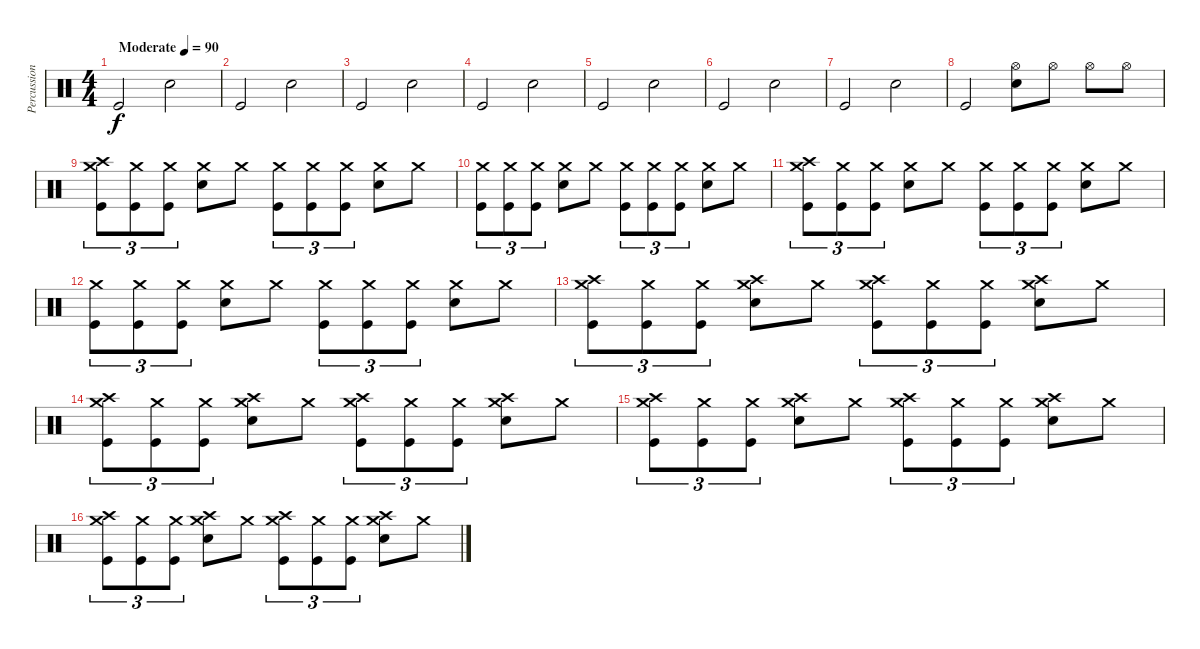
\track ("Percussion" "Percussion") {instrument percussion}
\staff
\articulation defaults
\ts (4 4)
\tempo (90 "Moderate")
\clef neutral
\ks c "Kick (hit)".2{dy f} "Snare (hit) 2".2
|
"Kick (hit)".2 "Snare (hit) 2".2 |
"Kick (hit)".2 "Snare (hit) 2".2 |
"Kick (hit)".2 "Snare (hit) 2".2 |
"Kick (hit)".2 "Snare (hit) 2".2 |
"Kick (hit)".2 "Snare (hit) 2".2 |
"Kick (hit)".2 "Snare (hit) 2".2 |
"Kick (hit)".2 ("Hi-Hat (open)" "Snare (hit) 2").8 "Hi-Hat (open)".8 "Hi-Hat (open)".8 "Hi-Hat (open)".8 |
("Crash high (hit)" "Crash medium (hit)" "Kick (hit)").8{tu (3 2)} ("Crash medium (hit)" "Kick (hit)").8{tu (3 2)} ("Crash medium (hit)" "Kick (hit)").8{tu (3 2)} ("Crash medium (hit)" "Snare (hit) 2").8 "Crash medium (hit)".8 ("Crash medium (hit)" "Kick (hit)").8{tu (3 2)} ("Crash medium (hit)" "Kick (hit)").8{tu (3 2)} ("Crash medium (hit)" "Kick (hit)").8{tu (3 2)} ("Crash medium (hit)" "Snare (hit) 2").8 "Crash medium (hit)".8 |
("Crash medium (hit)" "Kick (hit)").8{tu (3 2)} ("Crash medium (hit)" "Kick (hit)").8{tu (3 2)} ("Crash medium (hit)" "Kick (hit)").8{tu (3 2)} ("Crash medium (hit)" "Snare (hit) 2").8 "Crash medium (hit)".8 ("Crash medium (hit)" "Kick (hit)").8{tu (3 2)} ("Crash medium (hit)" "Kick (hit)").8{tu (3 2)} ("Crash medium (hit)" "Kick (hit)").8{tu (3 2)} ("Crash medium (hit)" "Snare (hit) 2").8 "Crash medium (hit)".8 |
("Crash high (hit)" "Crash medium (hit)" "Kick (hit)").8{tu (3 2)} ("Crash medium (hit)" "Kick (hit)").8{tu (3 2)} ("Crash medium (hit)" "Kick (hit)").8{tu (3 2)} ("Crash medium (hit)" "Snare (hit) 2").8 "Crash medium (hit)".8 ("Crash medium (hit)" "Kick (hit)").8{tu (3 2)} ("Crash medium (hit)" "Kick (hit)").8{tu (3 2)} ("Crash medium (hit)" "Kick (hit)").8{tu (3 2)} ("Crash medium (hit)" "Snare (hit) 2").8 "Crash medium (hit)".8 |
("Crash medium (hit)" "Kick (hit)").8{tu (3 2)} ("Crash medium (hit)" "Kick (hit)").8{tu (3 2)} ("Crash medium (hit)" "Kick (hit)").8{tu (3 2)} ("Crash medium (hit)" "Snare (hit) 2").8 "Crash medium (hit)".8 ("Crash medium (hit)" "Kick (hit)").8{tu (3 2)} ("Crash medium (hit)" "Kick (hit)").8{tu (3 2)} ("Crash medium (hit)" "Kick (hit)").8{tu (3 2)} ("Crash medium (hit)" "Snare (hit) 2").8 "Crash medium (hit)".8 |
("Crash high (hit)" "Crash medium (hit)" "Kick (hit)").8{tu (3 2)} ("Crash medium (hit)" "Kick (hit)").8{tu (3 2)} ("Crash medium (hit)" "Kick (hit)").8{tu (3 2)} ("Crash high (hit)" "Crash medium (hit)" "Snare (hit) 2").8 "Crash medium (hit)".8 ("Crash high (hit)" "Crash medium (hit)" "Kick (hit)").8{tu (3 2)} ("Crash medium (hit)" "Kick (hit)").8{tu (3 2)} ("Crash medium (hit)" "Kick (hit)").8{tu (3 2)} ("Crash high (hit)" "Crash medium (hit)" "Snare (hit) 2").8 "Crash medium (hit)".8 |
("Crash high (hit)" "Crash medium (hit)" "Kick (hit)").8{tu (3 2)} ("Crash medium (hit)" "Kick (hit)").8{tu (3 2)} ("Crash medium (hit)" "Kick (hit)").8{tu (3 2)} ("Crash high (hit)" "Crash medium (hit)" "Snare (hit) 2").8 "Crash medium (hit)".8 ("Crash high (hit)" "Crash medium (hit)" "Kick (hit)").8{tu (3 2)} ("Crash medium (hit)" "Kick (hit)").8{tu (3 2)} ("Crash medium (hit)" "Kick (hit)").8{tu (3 2)} ("Crash high (hit)" "Crash medium (hit)" "Snare (hit) 2").8 "Crash medium (hit)".8 |
("Crash high (hit)" "Crash medium (hit)" "Kick (hit)").8{tu (3 2)} ("Crash medium (hit)" "Kick (hit)").8{tu (3 2)} ("Crash medium (hit)" "Kick (hit)").8{tu (3 2)} ("Crash high (hit)" "Crash medium (hit)" "Snare (hit) 2").8 "Crash medium (hit)".8 ("Crash high (hit)" "Crash medium (hit)" "Kick (hit)").8{tu (3 2)} ("Crash medium (hit)" "Kick (hit)").8{tu (3 2)} ("Crash medium (hit)" "Kick (hit)").8{tu (3 2)} ("Crash high (hit)" "Crash medium (hit)" "Snare (hit) 2").8 "Crash medium (hit)".8 |
("Crash high (hit)" "Crash medium (hit)" "Kick (hit)").8{tu (3 2)} ("Crash medium (hit)" "Kick (hit)").8{tu (3 2)} ("Crash medium (hit)" "Kick (hit)").8{tu (3 2)} ("Crash high (hit)" "Crash medium (hit)" "Snare (hit) 2").8 "Crash medium (hit)".8 ("Crash high (hit)" "Crash medium (hit)" "Kick (hit)").8{tu (3 2)} ("Crash medium (hit)" "Kick (hit)").8{tu (3 2)} ("Crash medium (hit)" "Kick (hit)").8{tu (3 2)} ("Crash high (hit)" "Crash medium (hit)" "Snare (hit) 2").8 "Crash medium (hit)".8
